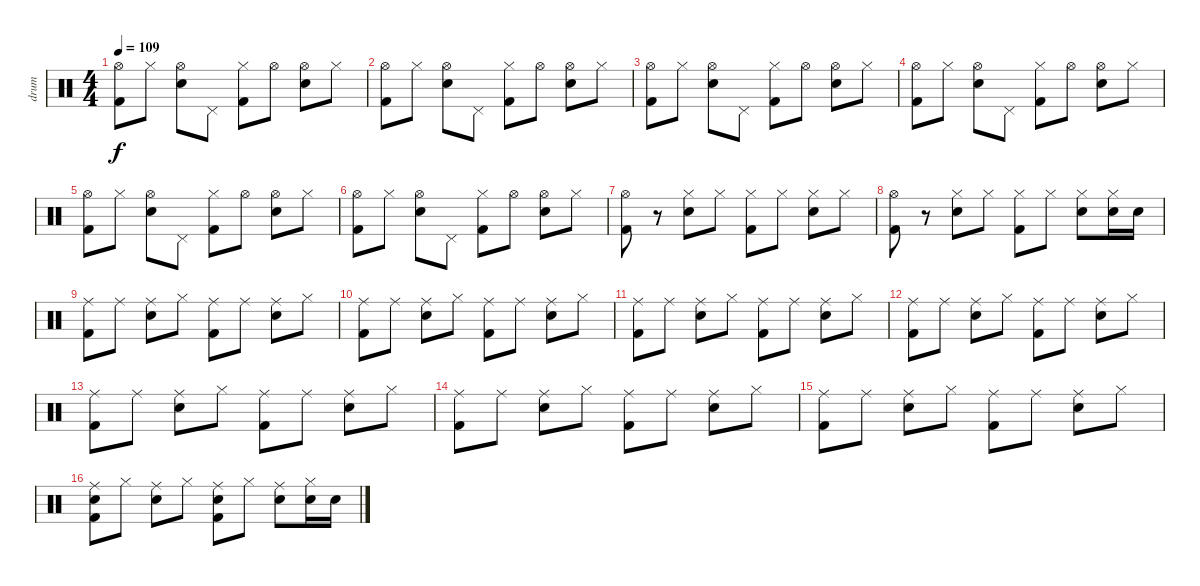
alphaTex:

\track ("drum" "drum") {instrument percussion}
\staff {score}
\articulation defaults
\ts (4 4)
\tempo 109
\clef neutral
\ks c
("Hi-Hat (open)" "Kick (hit) 2").8{dy f} "Hi-Hat (closed)".8 ("Hi-Hat (open)" "Electric Snare (hit)").8 "Pedal Hi-Hat (hit)".8 ("Hi-Hat (closed)" "Kick (hit) 2").8 "Hi-Hat (open)".8 ("Hi-Hat (open)" "Electric Snare (hit)").8 "Hi-Hat (closed)".8 |
("Hi-Hat (open)" "Kick (hit) 2").8 "Hi-Hat (closed)".8 ("Hi-Hat (open)" "Electric Snare (hit)").8 "Pedal Hi-Hat (hit)".8 ("Hi-Hat (closed)" "Kick (hit) 2").8 "Hi-Hat (open)".8 ("Hi-Hat (open)" "Electric Snare (hit)").8 "Hi-Hat (closed)".8 |
("Hi-Hat (open)" "Kick (hit) 2").8 "Hi-Hat (closed)".8 ("Hi-Hat (open)" "Electric Snare (hit)").8 "Pedal Hi-Hat (hit)".8 ("Hi-Hat (closed)" "Kick (hit) 2").8 "Hi-Hat (open)".8 ("Hi-Hat (open)" "Electric Snare (hit)").8 "Hi-Hat (closed)".8 |
("Hi-Hat (open)" "Kick (hit) 2").8 "Hi-Hat (closed)".8 ("Hi-Hat (open)" "Electric Snare (hit)").8 "Pedal Hi-Hat (hit)".8 ("Hi-Hat (closed)" "Kick (hit) 2").8 "Hi-Hat (open)".8 ("Hi-Hat (open)" "Electric Snare (hit)").8 "Hi-Hat (closed)".8 |
("Hi-Hat (open)" "Kick (hit) 2").8 "Hi-Hat (closed)".8 ("Hi-Hat (open)" "Electric Snare (hit)").8 "Pedal Hi-Hat (hit)".8 ("Hi-Hat (closed)" "Kick (hit) 2").8 "Hi-Hat (open)".8 ("Hi-Hat (open)" "Electric Snare (hit)").8 "Hi-Hat (closed)".8 |
("Hi-Hat (open)" "Kick (hit) 2").8 "Hi-Hat (closed)".8 ("Hi-Hat (open)" "Electric Snare (hit)").8 "Pedal Hi-Hat (hit)".8 ("Hi-Hat (closed)" "Kick (hit) 2").8 "Hi-Hat (open)".8 ("Hi-Hat (open)" "Electric Snare (hit)").8 "Hi-Hat (closed)".8 |
("Hi-Hat (open)" "Kick (hit) 2").8 r.8 ("Hi-Hat (closed)" "Electric Snare (hit)").8 "Hi-Hat (closed)".8 ("Hi-Hat (closed)" "Kick (hit) 2").8 "Hi-Hat (closed)".8 ("Hi-Hat (closed)" "Electric Snare (hit)").8 "Hi-Hat (closed)".8 |
("Hi-Hat (open)" "Kick (hit) 2").8 r.8 ("Hi-Hat (closed)" "Electric Snare (hit)").8 "Hi-Hat (closed)".8 ("Hi-Hat (closed)" "Kick (hit) 2").8 "Hi-Hat (closed)".8 ("Hi-Hat (closed)" "Electric Snare (hit)").8 ("Hi-Hat (closed)" "Electric Snare (hit)").16 "Electric Snare (hit)".16 |
("Ride (middle)" "Kick (hit) 2").8 "Ride (middle)".8 ("Ride (middle)" "Electric Snare (hit)").8 "Hi-Hat (closed)".8 ("Ride (middle)" "Kick (hit) 2").8 "Ride (middle)".8 ("Ride (middle)" "Electric Snare (hit)").8 "Hi-Hat (closed)".8 |
("Ride (middle)" "Kick (hit) 2").8 "Ride (middle)".8 ("Ride (middle)" "Electric Snare (hit)").8 "Hi-Hat (closed)".8 ("Ride (middle)" "Kick (hit) 2").8 "Ride (middle)".8 ("Ride (middle)" "Electric Snare (hit)").8 "Hi-Hat (closed)".8 |
("Ride (middle)" "Kick (hit) 2").8 "Ride (middle)".8 ("Ride (middle)" "Electric Snare (hit)").8 "Hi-Hat (closed)".8 ("Ride (middle)" "Kick (hit) 2").8 "Ride (middle)".8 ("Ride (middle)" "Electric Snare (hit)").8 "Hi-Hat (closed)".8 |
("Ride (middle)" "Kick (hit) 2").8 "Ride (middle)".8 ("Ride (middle)" "Electric Snare (hit)").8 "Hi-Hat (closed)".8 ("Ride (middle)" "Kick (hit) 2").8 "Ride (middle)".8 ("Ride (middle)" "Electric Snare (hit)").8 "Hi-Hat (closed)".8 |
("Ride (middle)" "Kick (hit) 2").8 "Ride (middle)".8 ("Ride (middle)" "Electric Snare (hit)").8 "Hi-Hat (closed)".8 ("Ride (middle)" "Kick (hit) 2").8 "Ride (middle)".8 ("Ride (middle)" "Electric Snare (hit)").8 "Hi-Hat (closed)".8 |
("Ride (middle)" "Kick (hit) 2").8 "Ride (middle)".8 ("Ride (middle)" "Electric Snare (hit)").8 "Hi-Hat (closed)".8 ("Ride (middle)" "Kick (hit) 2").8 "Ride (middle)".8 ("Ride (middle)" "Electric Snare (hit)").8 "Hi-Hat (closed)".8 |
("Ride (middle)" "Kick (hit) 2").8 "Ride (middle)".8 ("Ride (middle)" "Electric Snare (hit)").8 "Hi-Hat (closed)".8 ("Ride (middle)" "Kick (hit) 2").8 "Ride (middle)".8 ("Ride (middle)" "Electric Snare (hit)").8 "Hi-Hat (closed)".8 |
("Ride (middle)" "Electric Snare (hit)" "Kick (hit) 2").8 "Hi-Hat (closed)".8 ("Ride (middle)" "Electric Snare (hit)").8 "Hi-Hat (closed)".8 ("Ride (middle)" "Electric Snare (hit)" "Kick (hit) 2").8 "Hi-Hat (closed)".8 ("Ride (middle)" "Electric Snare (hit)").8 ("Hi-Hat (closed)" "Electric Snare (hit)").16 "Electric Snare (hit)".16
